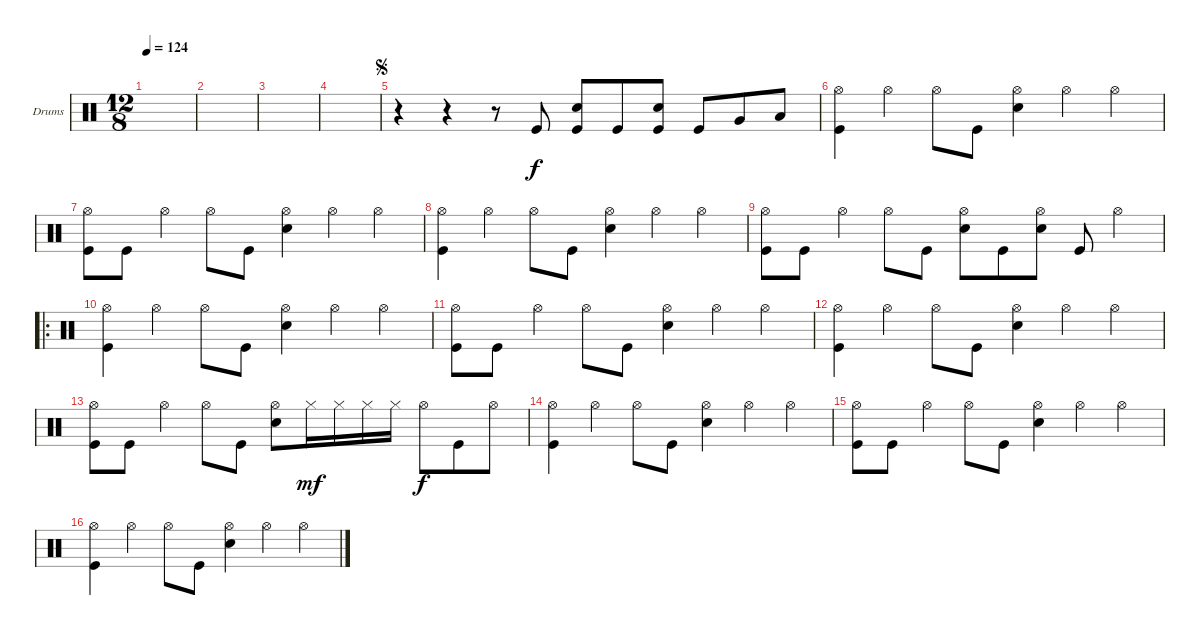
\defaultSystemsLayout 4
\bracketExtendMode groupsimilarinstruments
\firstSystemTrackNameOrientation horizontal
\otherSystemsTrackNameOrientation horizontal
\track ("Drumkit" "Drums") {instrument percussion}
\staff {score}
\articulation defaults
\ts (12 8)
\tempo 124
\clef neutral
\ks c
|
|
|
|
\jump segno
r.4 r.4 r.8 "Kick (hit)".8 ("Kick (hit)" "Snare (hit) 2").8 "Kick (hit)".8 ("Snare (hit) 2" "Kick (hit)").8 "Kick (hit)".8 "Very Low Tom (hit)".8 "Low Tom (hit)".8 |
("Hi-Hat (open)" "Kick (hit)").4 "Hi-Hat (open)".4 "Hi-Hat (open)".8 "Kick (hit)".8 ("Hi-Hat (open)" "Snare (hit) 2").4 "Hi-Hat (open)".4 "Hi-Hat (open)".4 |
("Hi-Hat (open)" "Kick (hit)").8 "Kick (hit)".8 "Hi-Hat (open)".4 "Hi-Hat (open)".8 "Kick (hit)".8 ("Hi-Hat (open)" "Snare (hit) 2").4 "Hi-Hat (open)".4 "Hi-Hat (open)".4 |
("Hi-Hat (open)" "Kick (hit)").4 "Hi-Hat (open)".4 "Hi-Hat (open)".8 "Kick (hit)".8 ("Hi-Hat (open)" "Snare (hit) 2").4 "Hi-Hat (open)".4 "Hi-Hat (open)".4 |
("Hi-Hat (open)" "Kick (hit)").8 "Kick (hit)".8 "Hi-Hat (open)".4 "Hi-Hat (open)".8 "Kick (hit)".8 ("Hi-Hat (open)" "Snare (hit) 2").8 "Kick (hit)".8 ("Hi-Hat (open)" "Snare (hit) 2").8 "Kick (hit)".8 "Hi-Hat (open)".4 |
\ro
("Hi-Hat (open)" "Kick (hit)").4 "Hi-Hat (open)".4 "Hi-Hat (open)".8 "Kick (hit)".8 ("Hi-Hat (open)" "Snare (hit) 2").4 "Hi-Hat (open)".4 "Hi-Hat (open)".4 |
("Hi-Hat (open)" "Kick (hit)").8 "Kick (hit)".8 "Hi-Hat (open)".4 "Hi-Hat (open)".8 "Kick (hit)".8 ("Hi-Hat (open)" "Snare (hit) 2").4 "Hi-Hat (open)".4 "Hi-Hat (open)".4 |
("Hi-Hat (open)" "Kick (hit)").4 "Hi-Hat (open)".4 "Hi-Hat (open)".8 "Kick (hit)".8 ("Hi-Hat (open)" "Snare (hit) 2").4 "Hi-Hat (open)".4 "Hi-Hat (open)".4 |
("Hi-Hat (open)" "Kick (hit)").8 "Kick (hit)".8 "Hi-Hat (open)".4 "Hi-Hat (open)".8 "Kick (hit)".8 ("Hi-Hat (open)" "Snare (hit) 2").8 "Hi-Hat (closed)".16{dy mf} "Hi-Hat (closed)".16 "Hi-Hat (closed)".16 "Hi-Hat (closed)".16 "Hi-Hat (open)".8{dy f} "Kick (hit)".8 "Hi-Hat (open)".8 |
("Hi-Hat (open)" "Kick (hit)").4 "Hi-Hat (open)".4 "Hi-Hat (open)".8 "Kick (hit)".8 ("Hi-Hat (open)" "Snare (hit) 2").4 "Hi-Hat (open)".4 "Hi-Hat (open)".4 |
("Hi-Hat (open)" "Kick (hit)").8 "Kick (hit)".8 "Hi-Hat (open)".4 "Hi-Hat (open)".8 "Kick (hit)".8 ("Hi-Hat (open)" "Snare (hit) 2").4 "Hi-Hat (open)".4 "Hi-Hat (open)".4 |
("Hi-Hat (open)" "Kick (hit)").4 "Hi-Hat (open)".4 "Hi-Hat (open)".8 "Kick (hit)".8 ("Hi-Hat (open)" "Snare (hit) 2").4 "Hi-Hat (open)".4 "Hi-Hat (open)".4
